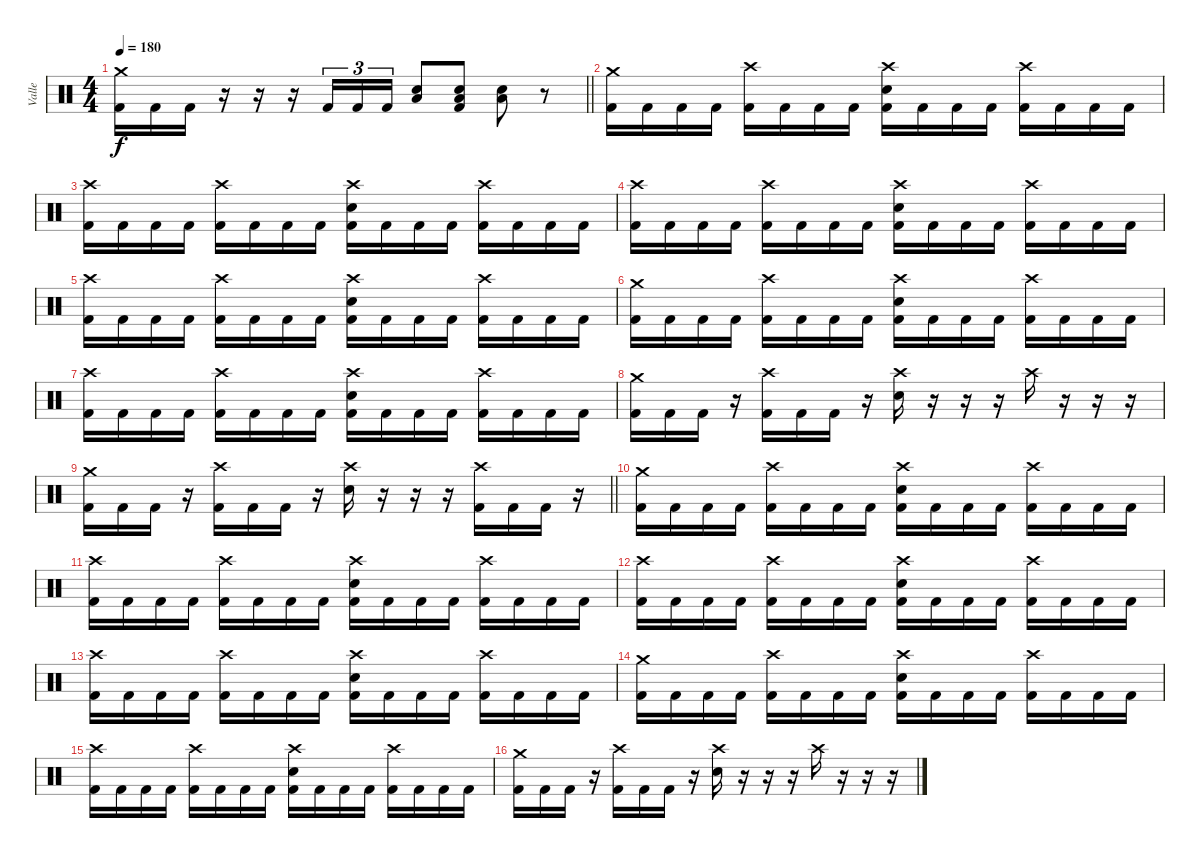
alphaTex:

\track ("Valle" "Valle") {instrument percussion}
\staff {score}
\articulation defaults
\ts (4 4)
\tempo 180
\clef neutral
\barLineRight lightlight
\ks c
("Crash medium (hit)" "Kick (hit) 2").16{dy f} "Kick (hit) 2".16 "Kick (hit) 2".16 r.16 r.16 r.16 "Kick (hit) 2".16{tu (3 2)} "Kick (hit) 2".16{tu (3 2)} "Kick (hit) 2".16{tu (3 2)} ("Low Floor Tom (hit)" "Snare (hit) 2").8 ("Low Floor Tom (hit)" "Snare (hit) 2" "Kick (hit) 2").8 ("Low Floor Tom (hit)" "Snare (hit) 2").8 r.8 |
\section ("" "")
("Crash medium (hit)" "Kick (hit) 2").16 "Kick (hit) 2".16 "Kick (hit) 2".16 "Kick (hit) 2".16 ("Crash high (hit)" "Kick (hit) 2").16 "Kick (hit) 2".16 "Kick (hit) 2".16 "Kick (hit) 2".16 ("Crash high (hit)" "Snare (hit) 2" "Kick (hit) 2").16 "Kick (hit) 2".16 "Kick (hit) 2".16 "Kick (hit) 2".16 ("Crash high (hit)" "Kick (hit) 2").16 "Kick (hit) 2".16 "Kick (hit) 2".16 "Kick (hit) 2".16 |
("Crash high (hit)" "Kick (hit) 2").16 "Kick (hit) 2".16 "Kick (hit) 2".16 "Kick (hit) 2".16 ("Crash high (hit)" "Kick (hit) 2").16 "Kick (hit) 2".16 "Kick (hit) 2".16 "Kick (hit) 2".16 ("Crash high (hit)" "Snare (hit) 2" "Kick (hit) 2").16 "Kick (hit) 2".16 "Kick (hit) 2".16 "Kick (hit) 2".16 ("Crash high (hit)" "Kick (hit) 2").16 "Kick (hit) 2".16 "Kick (hit) 2".16 "Kick (hit) 2".16 |
("Crash high (hit)" "Kick (hit) 2").16 "Kick (hit) 2".16 "Kick (hit) 2".16 "Kick (hit) 2".16 ("Crash high (hit)" "Kick (hit) 2").16 "Kick (hit) 2".16 "Kick (hit) 2".16 "Kick (hit) 2".16 ("Crash high (hit)" "Snare (hit) 2" "Kick (hit) 2").16 "Kick (hit) 2".16 "Kick (hit) 2".16 "Kick (hit) 2".16 ("Crash high (hit)" "Kick (hit) 2").16 "Kick (hit) 2".16 "Kick (hit) 2".16 "Kick (hit) 2".16 |
("Crash high (hit)" "Kick (hit) 2").16 "Kick (hit) 2".16 "Kick (hit) 2".16 "Kick (hit) 2".16 ("Crash high (hit)" "Kick (hit) 2").16 "Kick (hit) 2".16 "Kick (hit) 2".16 "Kick (hit) 2".16 ("Crash high (hit)" "Snare (hit) 2" "Kick (hit) 2").16 "Kick (hit) 2".16 "Kick (hit) 2".16 "Kick (hit) 2".16 ("Crash high (hit)" "Kick (hit) 2").16 "Kick (hit) 2".16 "Kick (hit) 2".16 "Kick (hit) 2".16 |
("Crash medium (hit)" "Kick (hit) 2").16 "Kick (hit) 2".16 "Kick (hit) 2".16 "Kick (hit) 2".16 ("Crash high (hit)" "Kick (hit) 2").16 "Kick (hit) 2".16 "Kick (hit) 2".16 "Kick (hit) 2".16 ("Crash high (hit)" "Snare (hit) 2" "Kick (hit) 2").16 "Kick (hit) 2".16 "Kick (hit) 2".16 "Kick (hit) 2".16 ("Crash high (hit)" "Kick (hit) 2").16 "Kick (hit) 2".16 "Kick (hit) 2".16 "Kick (hit) 2".16 |
("Crash high (hit)" "Kick (hit) 2").16 "Kick (hit) 2".16 "Kick (hit) 2".16 "Kick (hit) 2".16 ("Crash high (hit)" "Kick (hit) 2").16 "Kick (hit) 2".16 "Kick (hit) 2".16 "Kick (hit) 2".16 ("Crash high (hit)" "Snare (hit) 2" "Kick (hit) 2").16 "Kick (hit) 2".16 "Kick (hit) 2".16 "Kick (hit) 2".16 ("Crash high (hit)" "Kick (hit) 2").16 "Kick (hit) 2".16 "Kick (hit) 2".16 "Kick (hit) 2".16 |
("Crash medium (hit)" "Kick (hit) 2").16 "Kick (hit) 2".16 "Kick (hit) 2".16 r.16 ("Crash high (hit)" "Kick (hit) 2").16 "Kick (hit) 2".16 "Kick (hit) 2".16 r.16 ("Crash high (hit)" "Snare (hit) 2").16 r.16 r.16 r.16 "Crash high (hit)".16 r.16 r.16 r.16 |
\barLineRight lightlight
("Crash medium (hit)" "Kick (hit) 2").16 "Kick (hit) 2".16 "Kick (hit) 2".16 r.16 ("Crash high (hit)" "Kick (hit) 2").16 "Kick (hit) 2".16 "Kick (hit) 2".16 r.16 ("Crash high (hit)" "Snare (hit) 2").16 r.16 r.16 r.16 ("Crash high (hit)" "Kick (hit) 2").16 "Kick (hit) 2".16 "Kick (hit) 2".16 r.16 |
("Crash medium (hit)" "Kick (hit) 2").16 "Kick (hit) 2".16 "Kick (hit) 2".16 "Kick (hit) 2".16 ("Crash high (hit)" "Kick (hit) 2").16 "Kick (hit) 2".16 "Kick (hit) 2".16 "Kick (hit) 2".16 ("Crash high (hit)" "Snare (hit) 2" "Kick (hit) 2").16 "Kick (hit) 2".16 "Kick (hit) 2".16 "Kick (hit) 2".16 ("Crash high (hit)" "Kick (hit) 2").16 "Kick (hit) 2".16 "Kick (hit) 2".16 "Kick (hit) 2".16 |
("Crash high (hit)" "Kick (hit) 2").16 "Kick (hit) 2".16 "Kick (hit) 2".16 "Kick (hit) 2".16 ("Crash high (hit)" "Kick (hit) 2").16 "Kick (hit) 2".16 "Kick (hit) 2".16 "Kick (hit) 2".16 ("Crash high (hit)" "Snare (hit) 2" "Kick (hit) 2").16 "Kick (hit) 2".16 "Kick (hit) 2".16 "Kick (hit) 2".16 ("Crash high (hit)" "Kick (hit) 2").16 "Kick (hit) 2".16 "Kick (hit) 2".16 "Kick (hit) 2".16 |
("Crash high (hit)" "Kick (hit) 2").16 "Kick (hit) 2".16 "Kick (hit) 2".16 "Kick (hit) 2".16 ("Crash high (hit)" "Kick (hit) 2").16 "Kick (hit) 2".16 "Kick (hit) 2".16 "Kick (hit) 2".16 ("Crash high (hit)" "Snare (hit) 2" "Kick (hit) 2").16 "Kick (hit) 2".16 "Kick (hit) 2".16 "Kick (hit) 2".16 ("Crash high (hit)" "Kick (hit) 2").16 "Kick (hit) 2".16 "Kick (hit) 2".16 "Kick (hit) 2".16 |
("Crash high (hit)" "Kick (hit) 2").16 "Kick (hit) 2".16 "Kick (hit) 2".16 "Kick (hit) 2".16 ("Crash high (hit)" "Kick (hit) 2").16 "Kick (hit) 2".16 "Kick (hit) 2".16 "Kick (hit) 2".16 ("Crash high (hit)" "Snare (hit) 2" "Kick (hit) 2").16 "Kick (hit) 2".16 "Kick (hit) 2".16 "Kick (hit) 2".16 ("Crash high (hit)" "Kick (hit) 2").16 "Kick (hit) 2".16 "Kick (hit) 2".16 "Kick (hit) 2".16 |
("Crash medium (hit)" "Kick (hit) 2").16 "Kick (hit) 2".16 "Kick (hit) 2".16 "Kick (hit) 2".16 ("Crash high (hit)" "Kick (hit) 2").16 "Kick (hit) 2".16 "Kick (hit) 2".16 "Kick (hit) 2".16 ("Crash high (hit)" "Snare (hit) 2" "Kick (hit) 2").16 "Kick (hit) 2".16 "Kick (hit) 2".16 "Kick (hit) 2".16 ("Crash high (hit)" "Kick (hit) 2").16 "Kick (hit) 2".16 "Kick (hit) 2".16 "Kick (hit) 2".16 |
("Crash high (hit)" "Kick (hit) 2").16 "Kick (hit) 2".16 "Kick (hit) 2".16 "Kick (hit) 2".16 ("Crash high (hit)" "Kick (hit) 2").16 "Kick (hit) 2".16 "Kick (hit) 2".16 "Kick (hit) 2".16 ("Crash high (hit)" "Snare (hit) 2" "Kick (hit) 2").16 "Kick (hit) 2".16 "Kick (hit) 2".16 "Kick (hit) 2".16 ("Crash high (hit)" "Kick (hit) 2").16 "Kick (hit) 2".16 "Kick (hit) 2".16 "Kick (hit) 2".16 |
("Crash medium (hit)" "Kick (hit) 2").16 "Kick (hit) 2".16 "Kick (hit) 2".16 r.16 ("Crash high (hit)" "Kick (hit) 2").16 "Kick (hit) 2".16 "Kick (hit) 2".16 r.16 ("Crash high (hit)" "Snare (hit) 2").16 r.16 r.16 r.16 "Crash high (hit)".16 r.16 r.16 r.16
